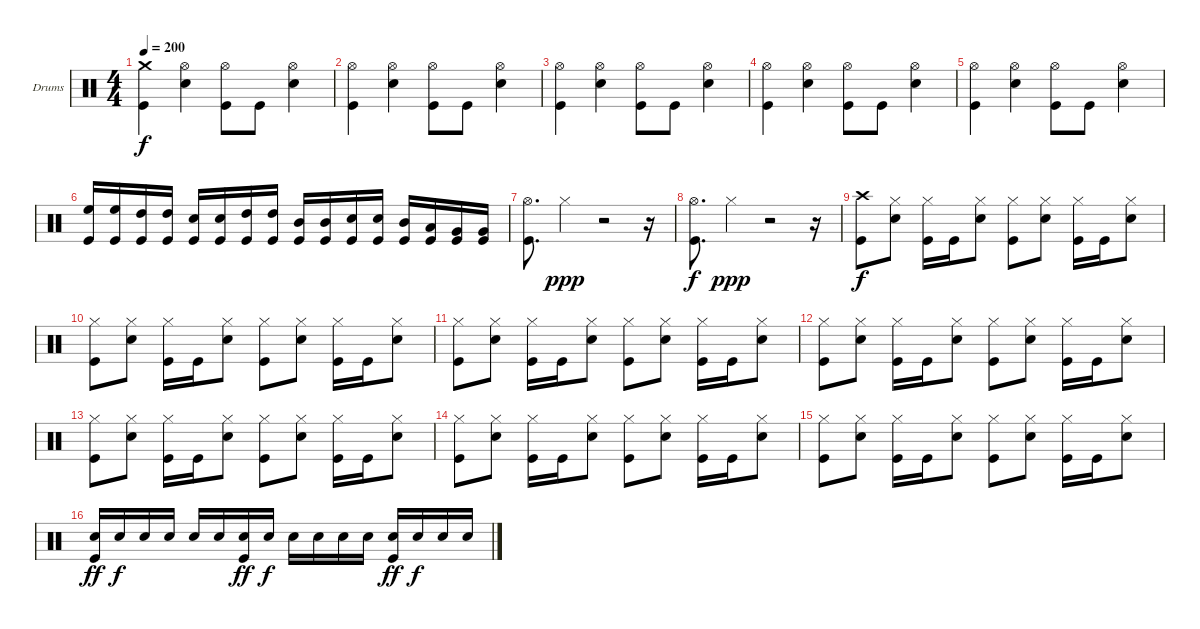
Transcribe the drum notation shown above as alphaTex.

\bracketExtendMode groupsimilarinstruments
\firstSystemTrackNameOrientation horizontal
\otherSystemsTrackNameOrientation horizontal
\track ("Drumkit" "Drums") {instrument percussion}
\staff {score}
\articulation defaults
\ts (4 4)
\tempo 200
\clef neutral
\ks aminor
("Kick (hit)" "Crash medium (hit)").4{dy f} ("Snare (hit) 2" "Hi-Hat (open)").4 ("Kick (hit)" "Hi-Hat (open)").8 "Kick (hit)".8 ("Snare (hit) 2" "Hi-Hat (open)").4 |
("Kick (hit)" "Hi-Hat (open)").4 ("Snare (hit) 2" "Hi-Hat (open)").4 ("Kick (hit)" "Hi-Hat (open)").8 "Kick (hit)".8 ("Snare (hit) 2" "Hi-Hat (open)").4 |
("Kick (hit)" "Hi-Hat (open)").4 ("Snare (hit) 2" "Hi-Hat (open)").4 ("Kick (hit)" "Hi-Hat (open)").8 "Kick (hit)".8 ("Snare (hit) 2" "Hi-Hat (open)").4 |
("Kick (hit)" "Hi-Hat (open)").4 ("Snare (hit) 2" "Hi-Hat (open)").4 ("Kick (hit)" "Hi-Hat (open)").8 "Kick (hit)".8 ("Snare (hit) 2" "Hi-Hat (open)").4 |
("Kick (hit)" "Hi-Hat (open)").4 ("Snare (hit) 2" "Hi-Hat (open)").4 ("Kick (hit)" "Hi-Hat (open)").8 "Kick (hit)".8 ("Snare (hit) 2" "Hi-Hat (open)").4 |
("Kick (hit)" "High Floor Tom (hit)").16 ("Kick (hit)" "High Floor Tom (hit)").16 ("Kick (hit)" "High Tom (hit)").16 ("Kick (hit)" "High Tom (hit)").16 ("Kick (hit)" "Snare (hit) 2").16 ("Kick (hit)" "Snare (hit) 2").16 ("Kick (hit)" "High Tom (hit)").16 ("Kick (hit)" "High Tom (hit)").16 ("Kick (hit)" "Mid Tom (hit)").16 ("Kick (hit)" "Mid Tom (hit)").16 ("Kick (hit)" "Snare (hit) 2").16 ("Kick (hit)" "Snare (hit) 2").16 ("Kick (hit)" "Mid Tom (hit)").16 ("Kick (hit)" "Low Tom (hit)").16 ("Kick (hit)" "Very Low Tom (hit)").16 ("Kick (hit)" "Very Low Tom (hit)").16 |
("Kick (hit)" "Hi-Hat (open)").8{d} "Hi-Hat (closed)".4{dy ppp} r.2 r.16 |
("Kick (hit)" "Hi-Hat (open)").8{d dy f} "Hi-Hat (closed)".4{dy ppp} r.2 r.16 |
\section ("" "")
("Kick (hit)" "Crash high (hit)").8{dy f} ("Snare (hit) 2" "Hi-Hat (closed)").8 ("Kick (hit)" "Hi-Hat (closed)").16 "Kick (hit)".16 ("Snare (hit) 2" "Hi-Hat (closed)").8 ("Kick (hit)" "Hi-Hat (closed)").8 ("Snare (hit) 2" "Hi-Hat (closed)").8 ("Kick (hit)" "Hi-Hat (closed)").16 "Kick (hit)".16 ("Snare (hit) 2" "Hi-Hat (closed)").8 |
("Kick (hit)" "Hi-Hat (closed)").8 ("Snare (hit) 2" "Hi-Hat (closed)").8 ("Kick (hit)" "Hi-Hat (closed)").16 "Kick (hit)".16 ("Snare (hit) 2" "Hi-Hat (closed)").8 ("Kick (hit)" "Hi-Hat (closed)").8 ("Snare (hit) 2" "Hi-Hat (closed)").8 ("Kick (hit)" "Hi-Hat (closed)").16 "Kick (hit)".16 ("Snare (hit) 2" "Hi-Hat (closed)").8 |
("Kick (hit)" "Hi-Hat (closed)").8 ("Snare (hit) 2" "Hi-Hat (closed)").8 ("Kick (hit)" "Hi-Hat (closed)").16 "Kick (hit)".16 ("Snare (hit) 2" "Hi-Hat (closed)").8 ("Kick (hit)" "Hi-Hat (closed)").8 ("Snare (hit) 2" "Hi-Hat (closed)").8 ("Kick (hit)" "Hi-Hat (closed)").16 "Kick (hit)".16 ("Snare (hit) 2" "Hi-Hat (closed)").8 |
("Kick (hit)" "Hi-Hat (closed)").8 ("Snare (hit) 2" "Hi-Hat (closed)").8 ("Kick (hit)" "Hi-Hat (closed)").16 "Kick (hit)".16 ("Snare (hit) 2" "Hi-Hat (closed)").8 ("Kick (hit)" "Hi-Hat (closed)").8 ("Snare (hit) 2" "Hi-Hat (closed)").8 ("Kick (hit)" "Hi-Hat (closed)").16 "Kick (hit)".16 ("Snare (hit) 2" "Hi-Hat (closed)").8 |
("Kick (hit)" "Hi-Hat (closed)").8 ("Snare (hit) 2" "Hi-Hat (closed)").8 ("Kick (hit)" "Hi-Hat (closed)").16 "Kick (hit)".16 ("Snare (hit) 2" "Hi-Hat (closed)").8 ("Kick (hit)" "Hi-Hat (closed)").8 ("Snare (hit) 2" "Hi-Hat (closed)").8 ("Kick (hit)" "Hi-Hat (closed)").16 "Kick (hit)".16 ("Snare (hit) 2" "Hi-Hat (closed)").8 |
("Kick (hit)" "Hi-Hat (closed)").8 ("Snare (hit) 2" "Hi-Hat (closed)").8 ("Kick (hit)" "Hi-Hat (closed)").16 "Kick (hit)".16 ("Snare (hit) 2" "Hi-Hat (closed)").8 ("Kick (hit)" "Hi-Hat (closed)").8 ("Snare (hit) 2" "Hi-Hat (closed)").8 ("Kick (hit)" "Hi-Hat (closed)").16 "Kick (hit)".16 ("Snare (hit) 2" "Hi-Hat (closed)").8 |
("Kick (hit)" "Hi-Hat (closed)").8 ("Snare (hit) 2" "Hi-Hat (closed)").8 ("Kick (hit)" "Hi-Hat (closed)").16 "Kick (hit)".16 ("Snare (hit) 2" "Hi-Hat (closed)").8 ("Kick (hit)" "Hi-Hat (closed)").8 ("Snare (hit) 2" "Hi-Hat (closed)").8 ("Kick (hit)" "Hi-Hat (closed)").16 "Kick (hit)".16 ("Snare (hit) 2" "Hi-Hat (closed)").8 |
("Kick (hit)" "Snare (hit) 2").16{dy ff} "Snare (hit) 2".16{dy f} "Snare (hit) 2".16 "Snare (hit) 2".16 "Snare (hit) 2".16 "Snare (hit) 2".16 ("Kick (hit)" "Snare (hit) 2").16{dy ff} "Snare (hit) 2".16{dy f} "Snare (hit) 2".16 "Snare (hit) 2".16 "Snare (hit) 2".16 "Snare (hit) 2".16 ("Kick (hit)" "Snare (hit) 2").16{dy ff} "Snare (hit) 2".16{dy f} "Snare (hit) 2".16 "Snare (hit) 2".16
